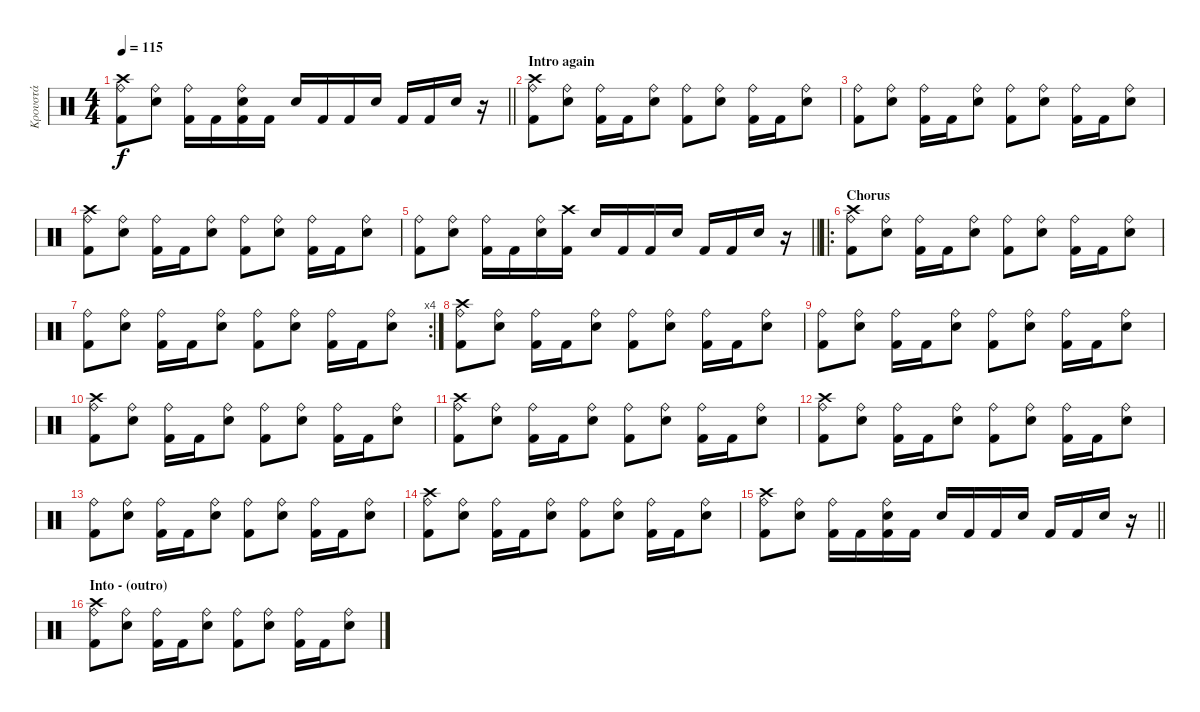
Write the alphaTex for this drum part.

\track ("Κρουστά" "Κρουστά") {instrument percussion}
\staff {score}
\articulation defaults
\ts (4 4)
\tempo 115
\clef neutral
\barLineRight lightlight
\ks c
("Crash high (hit)" "Ride (bell)" "Kick (hit) 2").8{dy f} ("Ride (bell)" "Snare (hit) 2").8 ("Ride (bell)" "Kick (hit) 2").16 "Kick (hit) 2".16 ("Snare (hit) 2" "Ride (bell)" "Kick (hit) 2").16 "Kick (hit) 2".16 "Snare (hit) 2".16 "Kick (hit) 2".16 "Kick (hit) 2".16 "Snare (hit) 2".16 "Kick (hit) 2".16 "Kick (hit) 2".16 "Snare (hit) 2".16 r.16 |
\section ("" "Intro again")
("Crash high (hit)" "Ride (bell)" "Kick (hit) 2").8 ("Ride (bell)" "Snare (hit) 2").8 ("Ride (bell)" "Kick (hit) 2").16 "Kick (hit) 2".16 ("Ride (bell)" "Snare (hit) 2").8 ("Ride (bell)" "Kick (hit) 2").8 ("Ride (bell)" "Snare (hit) 2").8 ("Ride (bell)" "Kick (hit) 2").16 "Kick (hit) 2".16 ("Ride (bell)" "Snare (hit) 2").8 |
("Ride (bell)" "Kick (hit) 2").8 ("Ride (bell)" "Snare (hit) 2").8 ("Ride (bell)" "Kick (hit) 2").16 "Kick (hit) 2".16 ("Ride (bell)" "Snare (hit) 2").8 ("Ride (bell)" "Kick (hit) 2").8 ("Ride (bell)" "Snare (hit) 2").8 ("Ride (bell)" "Kick (hit) 2").16 "Kick (hit) 2".16 ("Ride (bell)" "Snare (hit) 2").8 |
("Crash high (hit)" "Ride (bell)" "Kick (hit) 2").8 ("Ride (bell)" "Snare (hit) 2").8 ("Ride (bell)" "Kick (hit) 2").16 "Kick (hit) 2".16 ("Ride (bell)" "Snare (hit) 2").8 ("Ride (bell)" "Kick (hit) 2").8 ("Ride (bell)" "Snare (hit) 2").8 ("Ride (bell)" "Kick (hit) 2").16 "Kick (hit) 2".16 ("Ride (bell)" "Snare (hit) 2").8 |
\barLineRight lightlight
("Ride (bell)" "Kick (hit) 2").8 ("Ride (bell)" "Snare (hit) 2").8 ("Ride (bell)" "Kick (hit) 2").16 "Kick (hit) 2".16 ("Ride (bell)" "Snare (hit) 2").16 ("Crash high (hit)" "Kick (hit) 2").16 "Snare (hit) 2".16 "Kick (hit) 2".16 "Kick (hit) 2".16 "Snare (hit) 2".16 "Kick (hit) 2".16 "Kick (hit) 2".16 "Snare (hit) 2".16 r.16 |
\ro
\section ("" "Chorus")
("Crash high (hit)" "Ride (bell)" "Kick (hit) 2").8 ("Ride (bell)" "Snare (hit) 2").8 ("Ride (bell)" "Kick (hit) 2").16 "Kick (hit) 2".16 ("Ride (bell)" "Snare (hit) 2").8 ("Ride (bell)" "Kick (hit) 2").8 ("Ride (bell)" "Snare (hit) 2").8 ("Ride (bell)" "Kick (hit) 2").16 "Kick (hit) 2".16 ("Ride (bell)" "Snare (hit) 2").8 |
\rc 4
("Ride (bell)" "Kick (hit) 2").8 ("Ride (bell)" "Snare (hit) 2").8 ("Ride (bell)" "Kick (hit) 2").16 "Kick (hit) 2".16 ("Ride (bell)" "Snare (hit) 2").8 ("Ride (bell)" "Kick (hit) 2").8 ("Ride (bell)" "Snare (hit) 2").8 ("Ride (bell)" "Kick (hit) 2").16 "Kick (hit) 2".16 ("Ride (bell)" "Snare (hit) 2").8 |
("Crash high (hit)" "Ride (bell)" "Kick (hit) 2").8 ("Ride (bell)" "Snare (hit) 2").8 ("Ride (bell)" "Kick (hit) 2").16 "Kick (hit) 2".16 ("Ride (bell)" "Snare (hit) 2").8 ("Ride (bell)" "Kick (hit) 2").8 ("Ride (bell)" "Snare (hit) 2").8 ("Ride (bell)" "Kick (hit) 2").16 "Kick (hit) 2".16 ("Ride (bell)" "Snare (hit) 2").8 |
("Ride (bell)" "Kick (hit) 2").8 ("Ride (bell)" "Snare (hit) 2").8 ("Ride (bell)" "Kick (hit) 2").16 "Kick (hit) 2".16 ("Ride (bell)" "Snare (hit) 2").8 ("Ride (bell)" "Kick (hit) 2").8 ("Ride (bell)" "Snare (hit) 2").8 ("Ride (bell)" "Kick (hit) 2").16 "Kick (hit) 2".16 ("Ride (bell)" "Snare (hit) 2").8 |
("Crash high (hit)" "Ride (bell)" "Kick (hit) 2").8 ("Ride (bell)" "Snare (hit) 2").8 ("Ride (bell)" "Kick (hit) 2").16 "Kick (hit) 2".16 ("Ride (bell)" "Snare (hit) 2").8 ("Ride (bell)" "Kick (hit) 2").8 ("Ride (bell)" "Snare (hit) 2").8 ("Ride (bell)" "Kick (hit) 2").16 "Kick (hit) 2".16 ("Ride (bell)" "Snare (hit) 2").8 |
("Crash high (hit)" "Ride (bell)" "Kick (hit) 2").8 ("Ride (bell)" "Snare (hit) 2").8 ("Ride (bell)" "Kick (hit) 2").16 "Kick (hit) 2".16 ("Ride (bell)" "Snare (hit) 2").8 ("Ride (bell)" "Kick (hit) 2").8 ("Ride (bell)" "Snare (hit) 2").8 ("Ride (bell)" "Kick (hit) 2").16 "Kick (hit) 2".16 ("Ride (bell)" "Snare (hit) 2").8 |
("Crash high (hit)" "Ride (bell)" "Kick (hit) 2").8 ("Ride (bell)" "Snare (hit) 2").8 ("Ride (bell)" "Kick (hit) 2").16 "Kick (hit) 2".16 ("Ride (bell)" "Snare (hit) 2").8 ("Ride (bell)" "Kick (hit) 2").8 ("Ride (bell)" "Snare (hit) 2").8 ("Ride (bell)" "Kick (hit) 2").16 "Kick (hit) 2".16 ("Ride (bell)" "Snare (hit) 2").8 |
("Ride (bell)" "Kick (hit) 2").8 ("Ride (bell)" "Snare (hit) 2").8 ("Ride (bell)" "Kick (hit) 2").16 "Kick (hit) 2".16 ("Ride (bell)" "Snare (hit) 2").8 ("Ride (bell)" "Kick (hit) 2").8 ("Ride (bell)" "Snare (hit) 2").8 ("Ride (bell)" "Kick (hit) 2").16 "Kick (hit) 2".16 ("Ride (bell)" "Snare (hit) 2").8 |
("Crash high (hit)" "Ride (bell)" "Kick (hit) 2").8 ("Ride (bell)" "Snare (hit) 2").8 ("Ride (bell)" "Kick (hit) 2").16 "Kick (hit) 2".16 ("Ride (bell)" "Snare (hit) 2").8 ("Ride (bell)" "Kick (hit) 2").8 ("Ride (bell)" "Snare (hit) 2").8 ("Ride (bell)" "Kick (hit) 2").16 "Kick (hit) 2".16 ("Ride (bell)" "Snare (hit) 2").8 |
\barLineRight lightlight
("Crash high (hit)" "Ride (bell)" "Kick (hit) 2").8 ("Ride (bell)" "Snare (hit) 2").8 ("Ride (bell)" "Kick (hit) 2").16 "Kick (hit) 2".16 ("Snare (hit) 2" "Ride (bell)" "Kick (hit) 2").16 "Kick (hit) 2".16 "Snare (hit) 2".16 "Kick (hit) 2".16 "Kick (hit) 2".16 "Snare (hit) 2".16 "Kick (hit) 2".16 "Kick (hit) 2".16 "Snare (hit) 2".16 r.16 |
\section ("" "Into - (outro)")
("Crash high (hit)" "Ride (bell)" "Kick (hit) 2").8 ("Ride (bell)" "Snare (hit) 2").8 ("Ride (bell)" "Kick (hit) 2").16 "Kick (hit) 2".16 ("Ride (bell)" "Snare (hit) 2").8 ("Ride (bell)" "Kick (hit) 2").8 ("Ride (bell)" "Snare (hit) 2").8 ("Ride (bell)" "Kick (hit) 2").16 "Kick (hit) 2".16 ("Ride (bell)" "Snare (hit) 2").8
